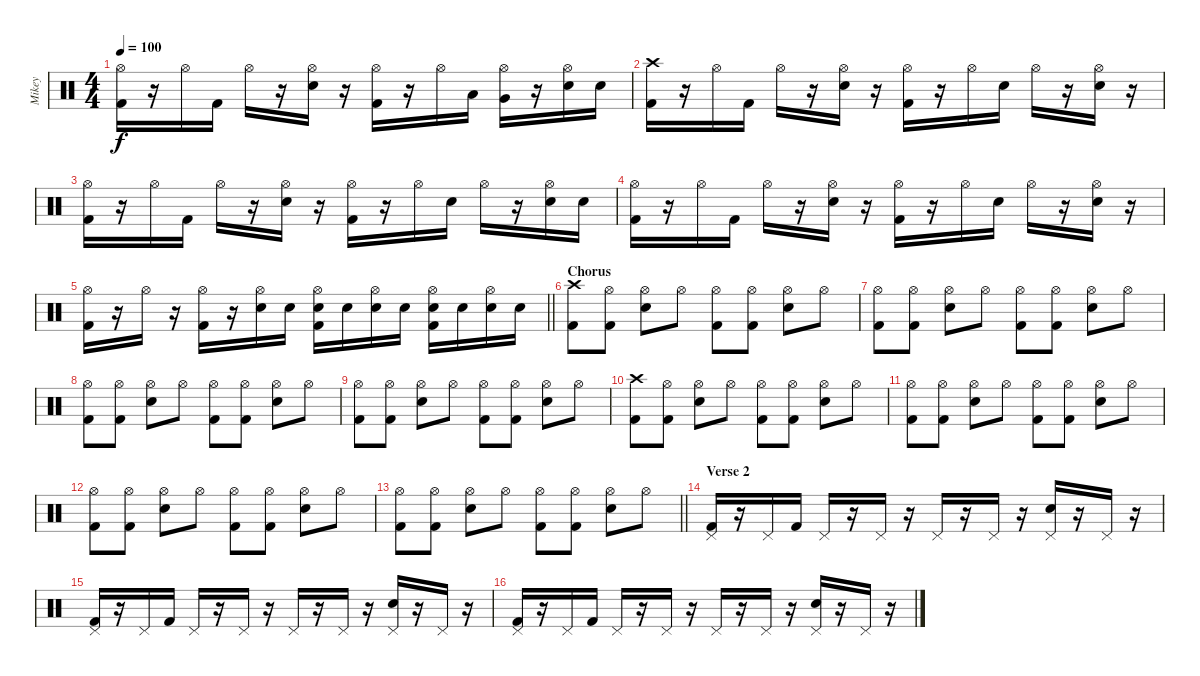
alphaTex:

\track ("Mikey" "Mikey") {instrument percussion}
\staff {score}
\articulation defaults
\ts (4 4)
\tempo 100
\clef neutral
\ks c
("Hi-Hat (open)" "Kick (hit) 2").16{dy f} r.16 "Hi-Hat (open)".16 "Kick (hit) 2".16 "Hi-Hat (open)".16 r.16 ("Hi-Hat (open)" "Snare (hit) 2").16 r.16 ("Hi-Hat (open)" "Kick (hit) 2").16 r.16 "Hi-Hat (open)".16 "Low Tom (hit)".16 ("Hi-Hat (open)" "Very Low Tom (hit)").16 r.16 ("Hi-Hat (open)" "Snare (hit) 2").16 "Snare (hit) 2".16 |
("Crash high (hit)" "Kick (hit) 2").16 r.16 "Hi-Hat (open)".16 "Kick (hit) 2".16 "Hi-Hat (open)".16 r.16 ("Hi-Hat (open)" "Snare (hit) 2").16 r.16 ("Hi-Hat (open)" "Kick (hit) 2").16 r.16 "Hi-Hat (open)".16 "Snare (hit) 2".16 "Hi-Hat (open)".16 r.16 ("Hi-Hat (open)" "Snare (hit) 2").16 r.16 |
("Hi-Hat (open)" "Kick (hit) 2").16 r.16 "Hi-Hat (open)".16 "Kick (hit) 2".16 "Hi-Hat (open)".16 r.16 ("Hi-Hat (open)" "Snare (hit) 2").16 r.16 ("Hi-Hat (open)" "Kick (hit) 2").16 r.16 "Hi-Hat (open)".16 "Snare (hit) 2".16 "Hi-Hat (open)".16 r.16 ("Hi-Hat (open)" "Snare (hit) 2").16 "Snare (hit) 2".16 |
("Hi-Hat (open)" "Kick (hit) 2").16 r.16 "Hi-Hat (open)".16 "Kick (hit) 2".16 "Hi-Hat (open)".16 r.16 ("Hi-Hat (open)" "Snare (hit) 2").16 r.16 ("Hi-Hat (open)" "Kick (hit) 2").16 r.16 "Hi-Hat (open)".16 "Snare (hit) 2".16 "Hi-Hat (open)".16 r.16 ("Hi-Hat (open)" "Snare (hit) 2").16 r.16 |
\barLineRight lightlight
("Hi-Hat (open)" "Kick (hit) 2").16 r.16 "Hi-Hat (open)".16 r.16 ("Hi-Hat (open)" "Kick (hit) 2").16 r.16 ("Hi-Hat (open)" "Snare (hit) 2").16 "Snare (hit) 2".16 ("Hi-Hat (open)" "Snare (hit) 2" "Kick (hit) 2").16 "Snare (hit) 2".16 ("Hi-Hat (open)" "Snare (hit) 2").16 "Snare (hit) 2".16 ("Hi-Hat (open)" "Snare (hit) 2" "Kick (hit) 2").16 "Snare (hit) 2".16 ("Hi-Hat (open)" "Snare (hit) 2").16 "Snare (hit) 2".16 |
\section ("" "Chorus")
("Crash high (hit)" "Kick (hit) 2").8 ("Hi-Hat (open)" "Kick (hit) 2").8 ("Hi-Hat (open)" "Snare (hit) 2").8 "Hi-Hat (open)".8 ("Hi-Hat (open)" "Kick (hit) 2").8 ("Hi-Hat (open)" "Kick (hit) 2").8 ("Hi-Hat (open)" "Snare (hit) 2").8 "Hi-Hat (open)".8 |
("Hi-Hat (open)" "Kick (hit) 2").8 ("Hi-Hat (open)" "Kick (hit) 2").8 ("Hi-Hat (open)" "Snare (hit) 2").8 "Hi-Hat (open)".8 ("Hi-Hat (open)" "Kick (hit) 2").8 ("Hi-Hat (open)" "Kick (hit) 2").8 ("Hi-Hat (open)" "Snare (hit) 2").8 "Hi-Hat (open)".8 |
("Hi-Hat (open)" "Kick (hit) 2").8 ("Hi-Hat (open)" "Kick (hit) 2").8 ("Hi-Hat (open)" "Snare (hit) 2").8 "Hi-Hat (open)".8 ("Hi-Hat (open)" "Kick (hit) 2").8 ("Hi-Hat (open)" "Kick (hit) 2").8 ("Hi-Hat (open)" "Snare (hit) 2").8 "Hi-Hat (open)".8 |
("Hi-Hat (open)" "Kick (hit) 2").8 ("Hi-Hat (open)" "Kick (hit) 2").8 ("Hi-Hat (open)" "Snare (hit) 2").8 "Hi-Hat (open)".8 ("Hi-Hat (open)" "Kick (hit) 2").8 ("Hi-Hat (open)" "Kick (hit) 2").8 ("Hi-Hat (open)" "Snare (hit) 2").8 "Hi-Hat (open)".8 |
("Crash high (hit)" "Kick (hit) 2").8 ("Hi-Hat (open)" "Kick (hit) 2").8 ("Hi-Hat (open)" "Snare (hit) 2").8 "Hi-Hat (open)".8 ("Hi-Hat (open)" "Kick (hit) 2").8 ("Hi-Hat (open)" "Kick (hit) 2").8 ("Hi-Hat (open)" "Snare (hit) 2").8 "Hi-Hat (open)".8 |
("Hi-Hat (open)" "Kick (hit) 2").8 ("Hi-Hat (open)" "Kick (hit) 2").8 ("Hi-Hat (open)" "Snare (hit) 2").8 "Hi-Hat (open)".8 ("Hi-Hat (open)" "Kick (hit) 2").8 ("Hi-Hat (open)" "Kick (hit) 2").8 ("Hi-Hat (open)" "Snare (hit) 2").8 "Hi-Hat (open)".8 |
("Hi-Hat (open)" "Kick (hit) 2").8 ("Hi-Hat (open)" "Kick (hit) 2").8 ("Hi-Hat (open)" "Snare (hit) 2").8 "Hi-Hat (open)".8 ("Hi-Hat (open)" "Kick (hit) 2").8 ("Hi-Hat (open)" "Kick (hit) 2").8 ("Hi-Hat (open)" "Snare (hit) 2").8 "Hi-Hat (open)".8 |
\barLineRight lightlight
("Hi-Hat (open)" "Kick (hit) 2").8 ("Hi-Hat (open)" "Kick (hit) 2").8 ("Hi-Hat (open)" "Snare (hit) 2").8 "Hi-Hat (open)".8 ("Hi-Hat (open)" "Kick (hit) 2").8 ("Hi-Hat (open)" "Kick (hit) 2").8 ("Hi-Hat (open)" "Snare (hit) 2").8 "Hi-Hat (open)".8 |
\section ("" "Verse 2")
("Pedal Hi-Hat (hit)" "Kick (hit) 2").16 r.16 "Pedal Hi-Hat (hit)".16 "Kick (hit) 2".16 "Pedal Hi-Hat (hit)".16 r.16 "Pedal Hi-Hat (hit)".16 r.16 "Pedal Hi-Hat (hit)".16 r.16 "Pedal Hi-Hat (hit)".16 r.16 ("Pedal Hi-Hat (hit)" "Snare (hit) 2").16 r.16 "Pedal Hi-Hat (hit)".16 r.16 |
("Pedal Hi-Hat (hit)" "Kick (hit) 2").16 r.16 "Pedal Hi-Hat (hit)".16 "Kick (hit) 2".16 "Pedal Hi-Hat (hit)".16 r.16 "Pedal Hi-Hat (hit)".16 r.16 "Pedal Hi-Hat (hit)".16 r.16 "Pedal Hi-Hat (hit)".16 r.16 ("Pedal Hi-Hat (hit)" "Snare (hit) 2").16 r.16 "Pedal Hi-Hat (hit)".16 r.16 |
("Pedal Hi-Hat (hit)" "Kick (hit) 2").16 r.16 "Pedal Hi-Hat (hit)".16 "Kick (hit) 2".16 "Pedal Hi-Hat (hit)".16 r.16 "Pedal Hi-Hat (hit)".16 r.16 "Pedal Hi-Hat (hit)".16 r.16 "Pedal Hi-Hat (hit)".16 r.16 ("Pedal Hi-Hat (hit)" "Snare (hit) 2").16 r.16 "Pedal Hi-Hat (hit)".16 r.16
